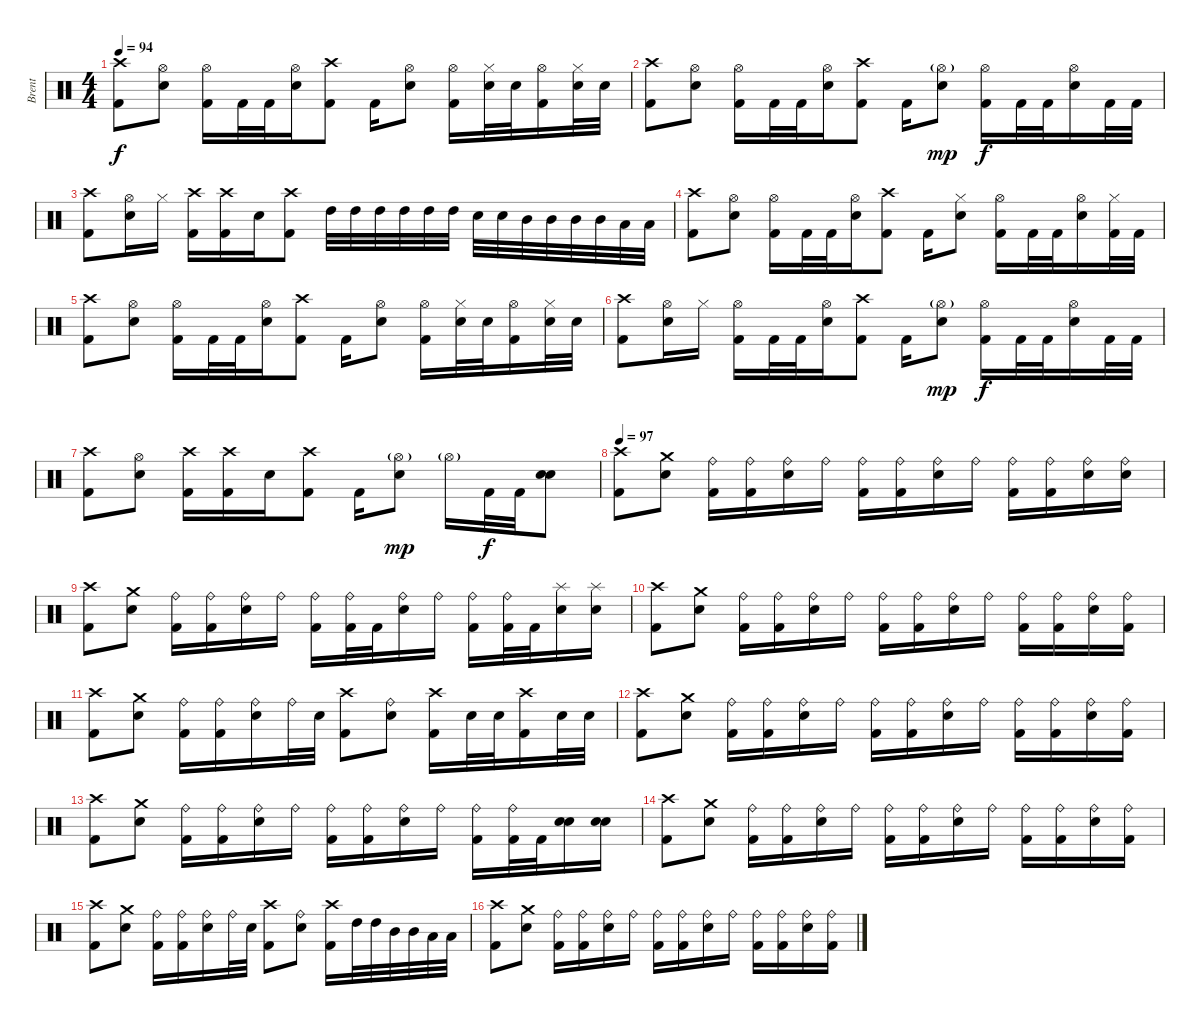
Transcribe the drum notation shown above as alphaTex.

\track ("Brent" "Brent") {instrument percussion}
\staff {score}
\articulation defaults
\ts (4 4)
\tempo 94
\clef neutral
\ks c
("Crash high (hit)" "Kick (hit) 2").8{dy f} ("Hi-Hat (open)" "Snare (hit) 2").8 ("Hi-Hat (open)" "Kick (hit) 2").16 "Kick (hit) 2".32 "Kick (hit) 2".32 ("Hi-Hat (open)" "Snare (hit) 2").16 ("Crash high (hit)" "Kick (hit) 2").8 "Kick (hit) 2".16 ("Hi-Hat (open)" "Snare (hit) 2").8 ("Hi-Hat (open)" "Kick (hit) 2").16 ("Hi-Hat (closed)" "Snare (hit) 2").32 "Snare (hit) 2".32 ("Hi-Hat (open)" "Kick (hit) 2").16 ("Hi-Hat (closed)" "Snare (hit) 2").32 "Snare (hit) 2".32 |
("Crash high (hit)" "Kick (hit) 2").8 ("Hi-Hat (open)" "Snare (hit) 2").8 ("Hi-Hat (open)" "Kick (hit) 2").16 "Kick (hit) 2".32 "Kick (hit) 2".32 ("Hi-Hat (open)" "Snare (hit) 2").16 ("Crash high (hit)" "Kick (hit) 2").8 "Kick (hit) 2".16 ("Hi-Hat (open)"{g} "Snare (hit) 2").8{dy mp} ("Hi-Hat (open)" "Kick (hit) 2").16{dy f} "Kick (hit) 2".32 "Kick (hit) 2".32 ("Hi-Hat (open)" "Snare (hit) 2").16 "Kick (hit) 2".32 "Kick (hit) 2".32 |
("Crash high (hit)" "Kick (hit) 2").8 ("Hi-Hat (open)" "Snare (hit) 2").16 "Hi-Hat (closed)".16 ("Crash high (hit)" "Kick (hit) 2").16 ("Crash high (hit)" "Kick (hit) 2").16 "Snare (hit) 2".16 ("Crash high (hit)" "Kick (hit) 2").8 "High Tom (hit)".32 "High Tom (hit)".32 "High Tom (hit)".32 "High Tom (hit)".32 "High Tom (hit)".32 "High Tom (hit)".32 "Snare (hit) 2".32 "Snare (hit) 2".32 "Mid Tom (hit)".32 "Mid Tom (hit)".32 "Mid Tom (hit)".32 "Mid Tom (hit)".32 "Low Tom (hit)".32 "Low Tom (hit)".32 |
("Crash high (hit)" "Kick (hit) 2").8 ("Hi-Hat (open)" "Snare (hit) 2").8 ("Hi-Hat (open)" "Kick (hit) 2").16 "Kick (hit) 2".32 "Kick (hit) 2".32 ("Hi-Hat (open)" "Snare (hit) 2").16 ("Crash high (hit)" "Kick (hit) 2").8 "Kick (hit) 2".16 ("Hi-Hat (closed)" "Snare (hit) 2").8 ("Hi-Hat (open)" "Kick (hit) 2").16 "Kick (hit) 2".32 "Kick (hit) 2".32 ("Hi-Hat (open)" "Snare (hit) 2").16 ("Hi-Hat (closed)" "Kick (hit) 2").32 "Kick (hit) 2".32 |
("Crash high (hit)" "Kick (hit) 2").8 ("Hi-Hat (open)" "Snare (hit) 2").8 ("Hi-Hat (open)" "Kick (hit) 2").16 "Kick (hit) 2".32 "Kick (hit) 2".32 ("Hi-Hat (open)" "Snare (hit) 2").16 ("Crash high (hit)" "Kick (hit) 2").8 "Kick (hit) 2".16 ("Hi-Hat (open)" "Snare (hit) 2").8 ("Hi-Hat (open)" "Kick (hit) 2").16 ("Hi-Hat (closed)" "Snare (hit) 2").32 "Snare (hit) 2".32 ("Hi-Hat (open)" "Kick (hit) 2").16 ("Hi-Hat (closed)" "Snare (hit) 2").32 "Snare (hit) 2".32 |
("Crash high (hit)" "Kick (hit) 2").8 ("Hi-Hat (open)" "Snare (hit) 2").16 "Hi-Hat (closed)".16 ("Hi-Hat (open)" "Kick (hit) 2").16 "Kick (hit) 2".32 "Kick (hit) 2".32 ("Hi-Hat (open)" "Snare (hit) 2").16 ("Crash high (hit)" "Kick (hit) 2").8 "Kick (hit) 2".16 ("Hi-Hat (open)"{g} "Snare (hit) 2").8{dy mp} ("Hi-Hat (open)" "Kick (hit) 2").16{dy f} "Kick (hit) 2".32 "Kick (hit) 2".32 ("Hi-Hat (open)" "Snare (hit) 2").16 "Kick (hit) 2".32 "Kick (hit) 2".32 |
("Crash high (hit)" "Kick (hit) 2").8 ("Hi-Hat (open)" "Snare (hit) 2").8 ("Crash high (hit)" "Kick (hit) 2").16 ("Crash high (hit)" "Kick (hit) 2").16 "Snare (hit) 2".16 ("Crash high (hit)" "Kick (hit) 2").8 "Kick (hit) 2".16 ("Hi-Hat (open)"{g} "Snare (hit) 2").8{dy mp} "Hi-Hat (open)"{g}.16 "Kick (hit) 2".32{dy f} "Kick (hit) 2".32 ("Snare (hit) 2" "Snare (hit) 2").8 |
\tempo 97
("Crash high (hit)" "Kick (hit) 2").8 ("Crash medium (hit)" "Snare (hit) 2").8 ("Ride (bell)" "Kick (hit) 2").16 ("Ride (bell)" "Kick (hit) 2").16 ("Ride (bell)" "Snare (hit) 2").16 "Ride (bell)".16 ("Ride (bell)" "Kick (hit) 2").16 ("Ride (bell)" "Kick (hit) 2").16 ("Ride (bell)" "Snare (hit) 2").16 "Ride (bell)".16 ("Ride (bell)" "Kick (hit) 2").16 ("Ride (bell)" "Kick (hit) 2").16 ("Ride (bell)" "Snare (hit) 2").16 ("Ride (bell)" "Snare (hit) 2").16 |
("Crash high (hit)" "Kick (hit) 2").8 ("Crash medium (hit)" "Snare (hit) 2").8 ("Ride (bell)" "Kick (hit) 2").16 ("Ride (bell)" "Kick (hit) 2").16 ("Ride (bell)" "Snare (hit) 2").16 "Ride (bell)".16 ("Ride (bell)" "Kick (hit) 2").16 ("Ride (bell)" "Kick (hit) 2").32 "Kick (hit) 2".32 ("Ride (bell)" "Snare (hit) 2").16 "Ride (bell)".16 ("Ride (bell)" "Kick (hit) 2").16 ("Ride (bell)" "Kick (hit) 2").32 "Kick (hit) 2".32 ("Splash (hit)" "Snare (hit) 2").16 ("Splash (hit)" "Snare (hit) 2").16 |
("Crash high (hit)" "Kick (hit) 2").8 ("Crash medium (hit)" "Snare (hit) 2").8 ("Ride (bell)" "Kick (hit) 2").16 ("Ride (bell)" "Kick (hit) 2").16 ("Ride (bell)" "Snare (hit) 2").16 "Ride (bell)".16 ("Ride (bell)" "Kick (hit) 2").16 ("Ride (bell)" "Kick (hit) 2").16 ("Ride (bell)" "Snare (hit) 2").16 "Ride (bell)".16 ("Ride (bell)" "Kick (hit) 2").16 ("Ride (bell)" "Kick (hit) 2").16 ("Ride (bell)" "Snare (hit) 2").16 ("Ride (bell)" "Kick (hit) 2").16 |
("Crash high (hit)" "Kick (hit) 2").8 ("Crash medium (hit)" "Snare (hit) 2").8 ("Ride (bell)" "Kick (hit) 2").16 ("Ride (bell)" "Kick (hit) 2").16 ("Ride (bell)" "Snare (hit) 2").16 "Ride (bell)".32 "Snare (hit) 2".32 ("Crash high (hit)" "Kick (hit) 2").8 ("Ride (bell)" "Snare (hit) 2").8 ("Crash high (hit)" "Kick (hit) 2").16 "Snare (hit) 2".32 "Snare (hit) 2".32 ("Crash high (hit)" "Kick (hit) 2").16 "Snare (hit) 2".32 "Snare (hit) 2".32 |
("Crash high (hit)" "Kick (hit) 2").8 ("Crash medium (hit)" "Snare (hit) 2").8 ("Ride (bell)" "Kick (hit) 2").16 ("Ride (bell)" "Kick (hit) 2").16 ("Ride (bell)" "Snare (hit) 2").16 "Ride (bell)".16 ("Ride (bell)" "Kick (hit) 2").16 ("Ride (bell)" "Kick (hit) 2").16 ("Ride (bell)" "Snare (hit) 2").16 "Ride (bell)".16 ("Ride (bell)" "Kick (hit) 2").16 ("Ride (bell)" "Kick (hit) 2").16 ("Ride (bell)" "Snare (hit) 2").16 ("Ride (bell)" "Kick (hit) 2").16 |
("Crash high (hit)" "Kick (hit) 2").8 ("Crash medium (hit)" "Snare (hit) 2").8 ("Ride (bell)" "Kick (hit) 2").16 ("Ride (bell)" "Kick (hit) 2").16 ("Ride (bell)" "Snare (hit) 2").16 "Ride (bell)".16 ("Ride (bell)" "Kick (hit) 2").16 ("Ride (bell)" "Kick (hit) 2").16 ("Ride (bell)" "Snare (hit) 2").16 "Ride (bell)".16 ("Ride (bell)" "Kick (hit) 2").16 ("Ride (bell)" "Kick (hit) 2").32 "Kick (hit) 2".32 ("Snare (hit) 2" "Snare (hit) 2").16 ("Snare (hit) 2" "Snare (hit) 2").16 |
("Crash high (hit)" "Kick (hit) 2").8 ("Crash medium (hit)" "Snare (hit) 2").8 ("Ride (bell)" "Kick (hit) 2").16 ("Ride (bell)" "Kick (hit) 2").16 ("Ride (bell)" "Snare (hit) 2").16 "Ride (bell)".16 ("Ride (bell)" "Kick (hit) 2").16 ("Ride (bell)" "Kick (hit) 2").16 ("Ride (bell)" "Snare (hit) 2").16 "Ride (bell)".16 ("Ride (bell)" "Kick (hit) 2").16 ("Ride (bell)" "Kick (hit) 2").16 ("Ride (bell)" "Snare (hit) 2").16 ("Ride (bell)" "Kick (hit) 2").16 |
("Crash high (hit)" "Kick (hit) 2").8 ("Crash medium (hit)" "Snare (hit) 2").8 ("Ride (bell)" "Kick (hit) 2").16 ("Ride (bell)" "Kick (hit) 2").16 ("Ride (bell)" "Snare (hit) 2").16 "Ride (bell)".32 "Snare (hit) 2".32 ("Crash high (hit)" "Kick (hit) 2").8 ("Ride (bell)" "Snare (hit) 2").8 ("Crash high (hit)" "Kick (hit) 2").16 "High Tom (hit)".32 "High Tom (hit)".32 "Mid Tom (hit)".32 "Mid Tom (hit)".32 "Low Tom (hit)".32 "Low Tom (hit)".32 |
("Crash high (hit)" "Kick (hit) 2").8 ("Crash medium (hit)" "Snare (hit) 2").8 ("Ride (bell)" "Kick (hit) 2").16 ("Ride (bell)" "Kick (hit) 2").16 ("Ride (bell)" "Snare (hit) 2").16 "Ride (bell)".16 ("Ride (bell)" "Kick (hit) 2").16 ("Ride (bell)" "Kick (hit) 2").16 ("Ride (bell)" "Snare (hit) 2").16 "Ride (bell)".16 ("Ride (bell)" "Kick (hit) 2").16 ("Ride (bell)" "Kick (hit) 2").16 ("Ride (bell)" "Snare (hit) 2").16 ("Ride (bell)" "Kick (hit) 2").16
